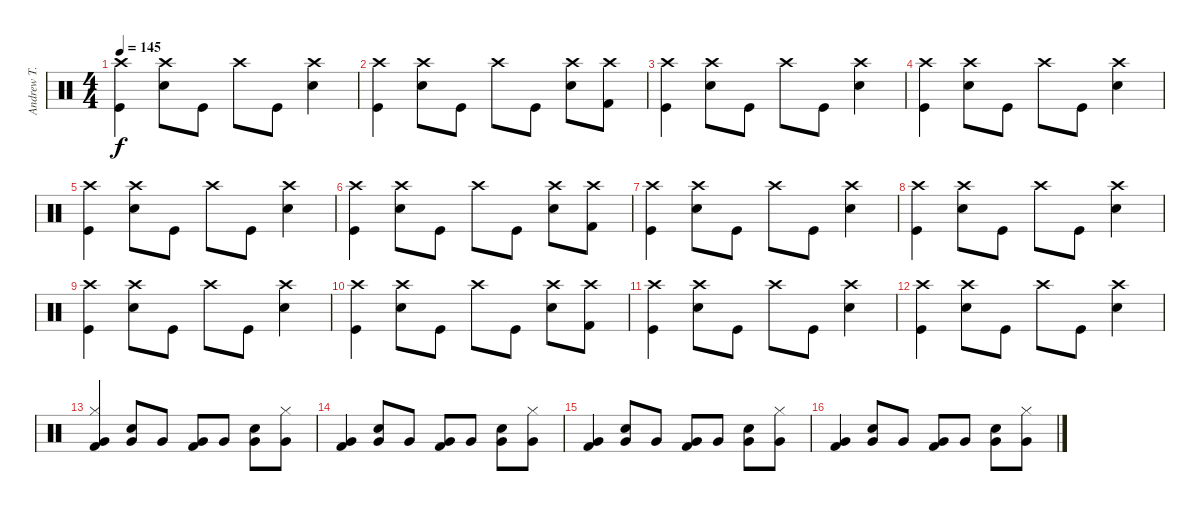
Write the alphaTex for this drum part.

\track ("Andrew T." "Andrew T.") {instrument percussion}
\staff {score}
\articulation defaults
\ts (4 4)
\tempo 145
\clef neutral
\ks c
("Crash high (hit)" "Kick (hit)").4{dy f} ("Crash high (hit)" "Snare (hit) 2").8 "Kick (hit)".8 "Crash high (hit)".8 "Kick (hit)".8 ("Crash high (hit)" "Snare (hit) 2").4 |
("Crash high (hit)" "Kick (hit)").4 ("Crash high (hit)" "Snare (hit) 2").8 "Kick (hit)".8 "Crash high (hit)".8 "Kick (hit)".8 ("Crash high (hit)" "Snare (hit) 2").8 ("Kick (hit) 2" "Crash high (hit)").8 |
("Crash high (hit)" "Kick (hit)").4 ("Crash high (hit)" "Snare (hit) 2").8 "Kick (hit)".8 "Crash high (hit)".8 "Kick (hit)".8 ("Crash high (hit)" "Snare (hit) 2").4 |
("Crash high (hit)" "Kick (hit)").4 ("Crash high (hit)" "Snare (hit) 2").8 "Kick (hit)".8 "Crash high (hit)".8 "Kick (hit)".8 ("Crash high (hit)" "Snare (hit) 2").4 |
("Crash high (hit)" "Kick (hit)").4 ("Crash high (hit)" "Snare (hit) 2").8 "Kick (hit)".8 "Crash high (hit)".8 "Kick (hit)".8 ("Crash high (hit)" "Snare (hit) 2").4 |
("Crash high (hit)" "Kick (hit)").4 ("Crash high (hit)" "Snare (hit) 2").8 "Kick (hit)".8 "Crash high (hit)".8 "Kick (hit)".8 ("Crash high (hit)" "Snare (hit) 2").8 ("Kick (hit) 2" "Crash high (hit)").8 |
("Crash high (hit)" "Kick (hit)").4 ("Crash high (hit)" "Snare (hit) 2").8 "Kick (hit)".8 "Crash high (hit)".8 "Kick (hit)".8 ("Crash high (hit)" "Snare (hit) 2").4 |
("Crash high (hit)" "Kick (hit)").4 ("Crash high (hit)" "Snare (hit) 2").8 "Kick (hit)".8 "Crash high (hit)".8 "Kick (hit)".8 ("Crash high (hit)" "Snare (hit) 2").4 |
("Crash high (hit)" "Kick (hit)").4 ("Crash high (hit)" "Snare (hit) 2").8 "Kick (hit)".8 "Crash high (hit)".8 "Kick (hit)".8 ("Crash high (hit)" "Snare (hit) 2").4 |
("Crash high (hit)" "Kick (hit)").4 ("Crash high (hit)" "Snare (hit) 2").8 "Kick (hit)".8 "Crash high (hit)".8 "Kick (hit)".8 ("Crash high (hit)" "Snare (hit) 2").8 ("Kick (hit) 2" "Crash high (hit)").8 |
("Crash high (hit)" "Kick (hit)").4 ("Crash high (hit)" "Snare (hit) 2").8 "Kick (hit)".8 "Crash high (hit)".8 "Kick (hit)".8 ("Crash high (hit)" "Snare (hit) 2").4 |
("Crash high (hit)" "Kick (hit)").4 ("Crash high (hit)" "Snare (hit) 2").8 "Kick (hit)".8 "Crash high (hit)".8 "Kick (hit)".8 ("Crash high (hit)" "Snare (hit) 2").4 |
("Hi-Hat (closed)" "Kick (hit) 2" "Very Low Tom (hit)").4 ("Electric Snare (hit)" "Very Low Tom (hit)").8 "Very Low Tom (hit)".8 ("Kick (hit) 2" "Very Low Tom (hit)").8 "Very Low Tom (hit)".8 ("Electric Snare (hit)" "Very Low Tom (hit)").8 ("Hi-Hat (closed)" "Very Low Tom (hit)").8 |
("Very Low Tom (hit)" "Kick (hit) 2").4 ("Electric Snare (hit)" "Very Low Tom (hit)").8 "Very Low Tom (hit)".8 ("Kick (hit) 2" "Very Low Tom (hit)").8 "Very Low Tom (hit)".8 ("Electric Snare (hit)" "Very Low Tom (hit)").8 ("Hi-Hat (closed)" "Very Low Tom (hit)").8 |
("Very Low Tom (hit)" "Kick (hit) 2").4 ("Electric Snare (hit)" "Very Low Tom (hit)").8 "Very Low Tom (hit)".8 ("Kick (hit) 2" "Very Low Tom (hit)").8 "Very Low Tom (hit)".8 ("Electric Snare (hit)" "Very Low Tom (hit)").8 ("Hi-Hat (closed)" "Very Low Tom (hit)").8 |
("Very Low Tom (hit)" "Kick (hit) 2").4 ("Electric Snare (hit)" "Very Low Tom (hit)").8 "Very Low Tom (hit)".8 ("Kick (hit) 2" "Very Low Tom (hit)").8 "Very Low Tom (hit)".8 ("Electric Snare (hit)" "Very Low Tom (hit)").8 ("Hi-Hat (closed)" "Very Low Tom (hit)").8
